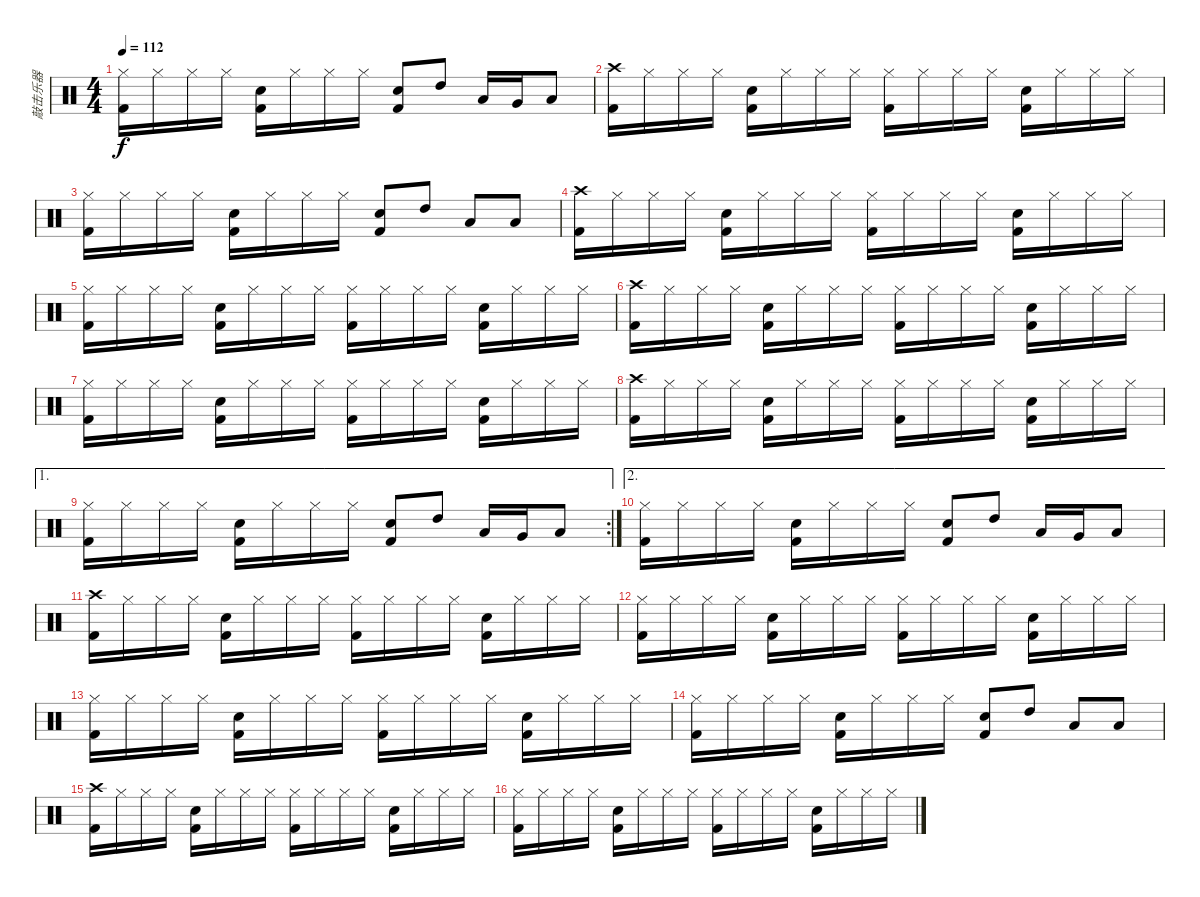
\track ("敲击乐器" "敲击乐器") {instrument percussion}
\staff {score}
\articulation defaults
\ts (4 4)
\tempo 112
\clef neutral
\ks c
("Hi-Hat (closed)" "Kick (hit) 2").16{dy f} "Hi-Hat (closed)".16 "Hi-Hat (closed)".16 "Hi-Hat (closed)".16 ("Snare (hit) 2" "Kick (hit) 2").16 "Hi-Hat (closed)".16 "Hi-Hat (closed)".16 "Hi-Hat (closed)".16 ("Snare (hit) 2" "Kick (hit) 2").8 "High Tom (hit)".8 "Low Tom (hit)".16 "Very Low Tom (hit)".16 "Low Floor Tom (hit)".8 |
("Crash high (hit)" "Kick (hit) 2").16 "Hi-Hat (closed)".16 "Hi-Hat (closed)".16 "Hi-Hat (closed)".16 ("Snare (hit) 2" "Kick (hit) 2").16 "Hi-Hat (closed)".16 "Hi-Hat (closed)".16 "Hi-Hat (closed)".16 ("Hi-Hat (closed)" "Kick (hit) 2").16 "Hi-Hat (closed)".16 "Hi-Hat (closed)".16 "Hi-Hat (closed)".16 ("Snare (hit) 2" "Kick (hit) 2").16 "Hi-Hat (closed)".16 "Hi-Hat (closed)".16 "Hi-Hat (closed)".16 |
("Hi-Hat (closed)" "Kick (hit) 2").16 "Hi-Hat (closed)".16 "Hi-Hat (closed)".16 "Hi-Hat (closed)".16 ("Snare (hit) 2" "Kick (hit) 2").16 "Hi-Hat (closed)".16 "Hi-Hat (closed)".16 "Hi-Hat (closed)".16 ("Snare (hit) 2" "Kick (hit) 2").8 "High Tom (hit)".8 "Low Tom (hit)".8 "Low Floor Tom (hit)".8 |
("Crash high (hit)" "Kick (hit) 2").16 "Hi-Hat (closed)".16 "Hi-Hat (closed)".16 "Hi-Hat (closed)".16 ("Snare (hit) 2" "Kick (hit) 2").16 "Hi-Hat (closed)".16 "Hi-Hat (closed)".16 "Hi-Hat (closed)".16 ("Hi-Hat (closed)" "Kick (hit) 2").16 "Hi-Hat (closed)".16 "Hi-Hat (closed)".16 "Hi-Hat (closed)".16 ("Snare (hit) 2" "Kick (hit) 2").16 "Hi-Hat (closed)".16 "Hi-Hat (closed)".16 "Hi-Hat (closed)".16 |
("Hi-Hat (closed)" "Kick (hit) 2").16 "Hi-Hat (closed)".16 "Hi-Hat (closed)".16 "Hi-Hat (closed)".16 ("Snare (hit) 2" "Kick (hit) 2").16 "Hi-Hat (closed)".16 "Hi-Hat (closed)".16 "Hi-Hat (closed)".16 ("Hi-Hat (closed)" "Kick (hit) 2").16 "Hi-Hat (closed)".16 "Hi-Hat (closed)".16 "Hi-Hat (closed)".16 ("Snare (hit) 2" "Kick (hit) 2").16 "Hi-Hat (closed)".16 "Hi-Hat (closed)".16 "Hi-Hat (closed)".16 |
("Crash high (hit)" "Kick (hit) 2").16 "Hi-Hat (closed)".16 "Hi-Hat (closed)".16 "Hi-Hat (closed)".16 ("Snare (hit) 2" "Kick (hit) 2").16 "Hi-Hat (closed)".16 "Hi-Hat (closed)".16 "Hi-Hat (closed)".16 ("Hi-Hat (closed)" "Kick (hit) 2").16 "Hi-Hat (closed)".16 "Hi-Hat (closed)".16 "Hi-Hat (closed)".16 ("Snare (hit) 2" "Kick (hit) 2").16 "Hi-Hat (closed)".16 "Hi-Hat (closed)".16 "Hi-Hat (closed)".16 |
("Hi-Hat (closed)" "Kick (hit) 2").16 "Hi-Hat (closed)".16 "Hi-Hat (closed)".16 "Hi-Hat (closed)".16 ("Snare (hit) 2" "Kick (hit) 2").16 "Hi-Hat (closed)".16 "Hi-Hat (closed)".16 "Hi-Hat (closed)".16 ("Hi-Hat (closed)" "Kick (hit) 2").16 "Hi-Hat (closed)".16 "Hi-Hat (closed)".16 "Hi-Hat (closed)".16 ("Snare (hit) 2" "Kick (hit) 2").16 "Hi-Hat (closed)".16 "Hi-Hat (closed)".16 "Hi-Hat (closed)".16 |
("Crash high (hit)" "Kick (hit) 2").16 "Hi-Hat (closed)".16 "Hi-Hat (closed)".16 "Hi-Hat (closed)".16 ("Snare (hit) 2" "Kick (hit) 2").16 "Hi-Hat (closed)".16 "Hi-Hat (closed)".16 "Hi-Hat (closed)".16 ("Hi-Hat (closed)" "Kick (hit) 2").16 "Hi-Hat (closed)".16 "Hi-Hat (closed)".16 "Hi-Hat (closed)".16 ("Snare (hit) 2" "Kick (hit) 2").16 "Hi-Hat (closed)".16 "Hi-Hat (closed)".16 "Hi-Hat (closed)".16 |
\ae 1
\rc 2
("Hi-Hat (closed)" "Kick (hit) 2").16 "Hi-Hat (closed)".16 "Hi-Hat (closed)".16 "Hi-Hat (closed)".16 ("Snare (hit) 2" "Kick (hit) 2").16 "Hi-Hat (closed)".16 "Hi-Hat (closed)".16 "Hi-Hat (closed)".16 ("Snare (hit) 2" "Kick (hit) 2").8 "High Tom (hit)".8 "Low Tom (hit)".16 "Very Low Tom (hit)".16 "Low Floor Tom (hit)".8 |
\ae 2
("Hi-Hat (closed)" "Kick (hit) 2").16 "Hi-Hat (closed)".16 "Hi-Hat (closed)".16 "Hi-Hat (closed)".16 ("Snare (hit) 2" "Kick (hit) 2").16 "Hi-Hat (closed)".16 "Hi-Hat (closed)".16 "Hi-Hat (closed)".16 ("Snare (hit) 2" "Kick (hit) 2").8 "High Tom (hit)".8 "Low Tom (hit)".16 "Very Low Tom (hit)".16 "Low Floor Tom (hit)".8 |
("Crash high (hit)" "Kick (hit) 2").16 "Hi-Hat (closed)".16 "Hi-Hat (closed)".16 "Hi-Hat (closed)".16 ("Snare (hit) 2" "Kick (hit) 2").16 "Hi-Hat (closed)".16 "Hi-Hat (closed)".16 "Hi-Hat (closed)".16 ("Hi-Hat (closed)" "Kick (hit) 2").16 "Hi-Hat (closed)".16 "Hi-Hat (closed)".16 "Hi-Hat (closed)".16 ("Snare (hit) 2" "Kick (hit) 2").16 "Hi-Hat (closed)".16 "Hi-Hat (closed)".16 "Hi-Hat (closed)".16 |
("Hi-Hat (closed)" "Kick (hit) 2").16 "Hi-Hat (closed)".16 "Hi-Hat (closed)".16 "Hi-Hat (closed)".16 ("Snare (hit) 2" "Kick (hit) 2").16 "Hi-Hat (closed)".16 "Hi-Hat (closed)".16 "Hi-Hat (closed)".16 ("Hi-Hat (closed)" "Kick (hit) 2").16 "Hi-Hat (closed)".16 "Hi-Hat (closed)".16 "Hi-Hat (closed)".16 ("Snare (hit) 2" "Kick (hit) 2").16 "Hi-Hat (closed)".16 "Hi-Hat (closed)".16 "Hi-Hat (closed)".16 |
("Hi-Hat (closed)" "Kick (hit) 2").16 "Hi-Hat (closed)".16 "Hi-Hat (closed)".16 "Hi-Hat (closed)".16 ("Snare (hit) 2" "Kick (hit) 2").16 "Hi-Hat (closed)".16 "Hi-Hat (closed)".16 "Hi-Hat (closed)".16 ("Hi-Hat (closed)" "Kick (hit) 2").16 "Hi-Hat (closed)".16 "Hi-Hat (closed)".16 "Hi-Hat (closed)".16 ("Snare (hit) 2" "Kick (hit) 2").16 "Hi-Hat (closed)".16 "Hi-Hat (closed)".16 "Hi-Hat (closed)".16 |
("Hi-Hat (closed)" "Kick (hit) 2").16 "Hi-Hat (closed)".16 "Hi-Hat (closed)".16 "Hi-Hat (closed)".16 ("Snare (hit) 2" "Kick (hit) 2").16 "Hi-Hat (closed)".16 "Hi-Hat (closed)".16 "Hi-Hat (closed)".16 ("Snare (hit) 2" "Kick (hit) 2").8 "High Tom (hit)".8 "Low Tom (hit)".8 "Low Floor Tom (hit)".8 |
("Crash high (hit)" "Kick (hit) 2").16 "Hi-Hat (closed)".16 "Hi-Hat (closed)".16 "Hi-Hat (closed)".16 ("Snare (hit) 2" "Kick (hit) 2").16 "Hi-Hat (closed)".16 "Hi-Hat (closed)".16 "Hi-Hat (closed)".16 ("Hi-Hat (closed)" "Kick (hit) 2").16 "Hi-Hat (closed)".16 "Hi-Hat (closed)".16 "Hi-Hat (closed)".16 ("Snare (hit) 2" "Kick (hit) 2").16 "Hi-Hat (closed)".16 "Hi-Hat (closed)".16 "Hi-Hat (closed)".16 |
("Hi-Hat (closed)" "Kick (hit) 2").16 "Hi-Hat (closed)".16 "Hi-Hat (closed)".16 "Hi-Hat (closed)".16 ("Snare (hit) 2" "Kick (hit) 2").16 "Hi-Hat (closed)".16 "Hi-Hat (closed)".16 "Hi-Hat (closed)".16 ("Hi-Hat (closed)" "Kick (hit) 2").16 "Hi-Hat (closed)".16 "Hi-Hat (closed)".16 "Hi-Hat (closed)".16 ("Snare (hit) 2" "Kick (hit) 2").16 "Hi-Hat (closed)".16 "Hi-Hat (closed)".16 "Hi-Hat (closed)".16
